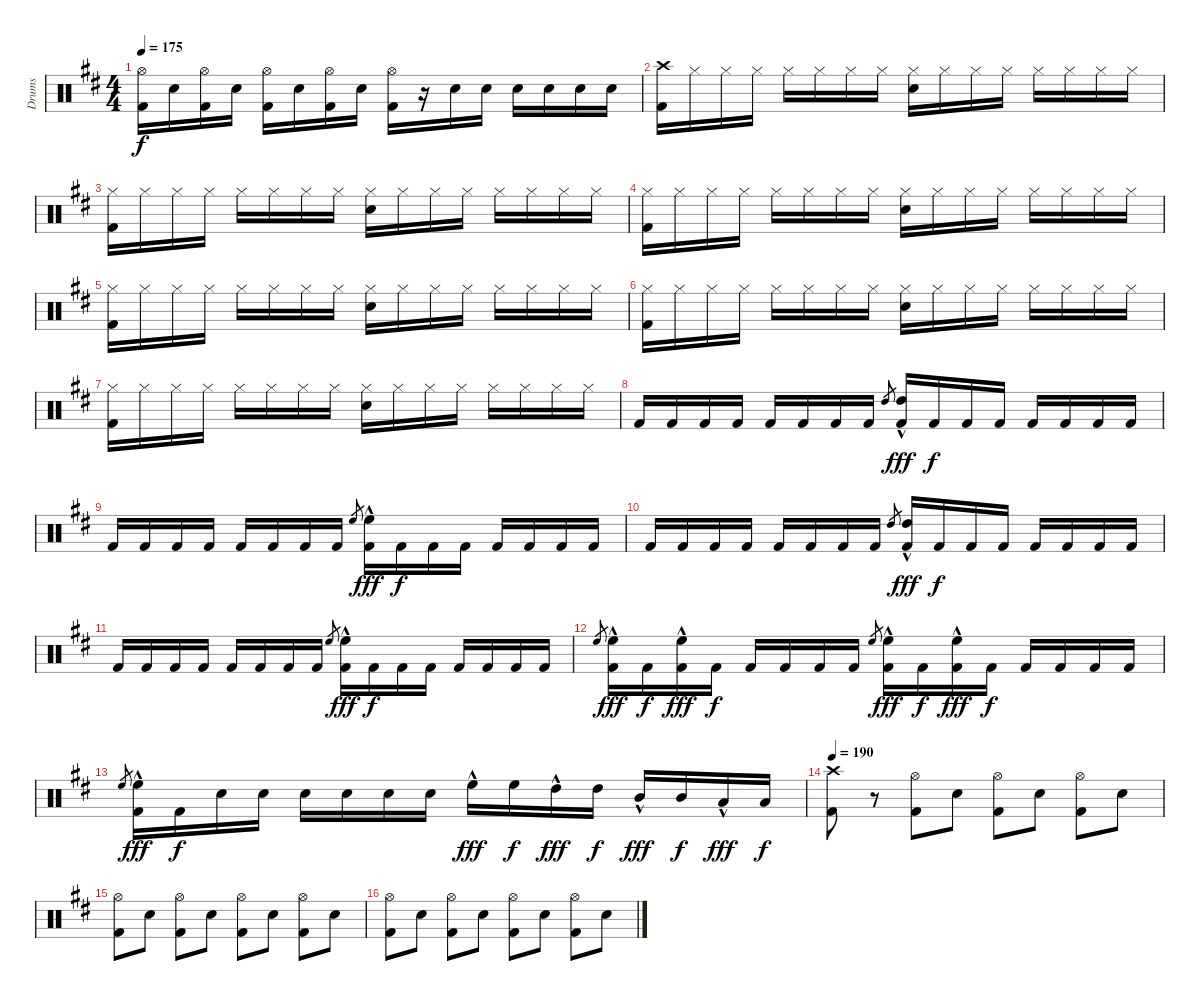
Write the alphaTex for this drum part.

\track ("Drums" "Drums") {instrument percussion}
\staff {score}
\articulation defaults
\ts (4 4)
\tempo 175
\clef neutral
\ks bminor
("Kick (hit) 2" "Hi-Hat (open)").16{dy f} "Electric Snare (hit)".16 ("Kick (hit) 2" "Hi-Hat (open)").16 "Electric Snare (hit)".16 ("Kick (hit) 2" "Hi-Hat (open)").16 "Electric Snare (hit)".16 ("Kick (hit) 2" "Hi-Hat (open)").16 "Electric Snare (hit)".16 ("Kick (hit) 2" "Hi-Hat (open)").16 r.16 "Electric Snare (hit)".16 "Electric Snare (hit)".16 "Electric Snare (hit)".16 "Electric Snare (hit)".16 "Electric Snare (hit)".16 "Electric Snare (hit)".16 |
("Kick (hit) 2" "Crash high (hit)").16 "Hi-Hat (closed)".16 "Hi-Hat (closed)".16 "Hi-Hat (closed)".16 "Hi-Hat (closed)".16 "Hi-Hat (closed)".16 "Hi-Hat (closed)".16 "Hi-Hat (closed)".16 ("Electric Snare (hit)" "Hi-Hat (closed)").16 "Hi-Hat (closed)".16 "Hi-Hat (closed)".16 "Hi-Hat (closed)".16 "Hi-Hat (closed)".16 "Hi-Hat (closed)".16 "Hi-Hat (closed)".16 "Hi-Hat (closed)".16 |
("Kick (hit) 2" "Hi-Hat (closed)").16 "Hi-Hat (closed)".16 "Hi-Hat (closed)".16 "Hi-Hat (closed)".16 "Hi-Hat (closed)".16 "Hi-Hat (closed)".16 "Hi-Hat (closed)".16 "Hi-Hat (closed)".16 ("Electric Snare (hit)" "Hi-Hat (closed)").16 "Hi-Hat (closed)".16 "Hi-Hat (closed)".16 "Hi-Hat (closed)".16 "Hi-Hat (closed)".16 "Hi-Hat (closed)".16 "Hi-Hat (closed)".16 "Hi-Hat (closed)".16 |
("Kick (hit) 2" "Hi-Hat (closed)").16 "Hi-Hat (closed)".16 "Hi-Hat (closed)".16 "Hi-Hat (closed)".16 "Hi-Hat (closed)".16 "Hi-Hat (closed)".16 "Hi-Hat (closed)".16 "Hi-Hat (closed)".16 ("Electric Snare (hit)" "Hi-Hat (closed)").16 "Hi-Hat (closed)".16 "Hi-Hat (closed)".16 "Hi-Hat (closed)".16 "Hi-Hat (closed)".16 "Hi-Hat (closed)".16 "Hi-Hat (closed)".16 "Hi-Hat (closed)".16 |
("Kick (hit) 2" "Hi-Hat (closed)").16 "Hi-Hat (closed)".16 "Hi-Hat (closed)".16 "Hi-Hat (closed)".16 "Hi-Hat (closed)".16 "Hi-Hat (closed)".16 "Hi-Hat (closed)".16 "Hi-Hat (closed)".16 ("Electric Snare (hit)" "Hi-Hat (closed)").16 "Hi-Hat (closed)".16 "Hi-Hat (closed)".16 "Hi-Hat (closed)".16 "Hi-Hat (closed)".16 "Hi-Hat (closed)".16 "Hi-Hat (closed)".16 "Hi-Hat (closed)".16 |
("Kick (hit) 2" "Hi-Hat (closed)").16 "Hi-Hat (closed)".16 "Hi-Hat (closed)".16 "Hi-Hat (closed)".16 "Hi-Hat (closed)".16 "Hi-Hat (closed)".16 "Hi-Hat (closed)".16 "Hi-Hat (closed)".16 ("Electric Snare (hit)" "Hi-Hat (closed)").16 "Hi-Hat (closed)".16 "Hi-Hat (closed)".16 "Hi-Hat (closed)".16 "Hi-Hat (closed)".16 "Hi-Hat (closed)".16 "Hi-Hat (closed)".16 "Hi-Hat (closed)".16 |
("Kick (hit) 2" "Hi-Hat (closed)").16 "Hi-Hat (closed)".16 "Hi-Hat (closed)".16 "Hi-Hat (closed)".16 "Hi-Hat (closed)".16 "Hi-Hat (closed)".16 "Hi-Hat (closed)".16 "Hi-Hat (closed)".16 ("Electric Snare (hit)" "Hi-Hat (closed)").16 "Hi-Hat (closed)".16 "Hi-Hat (closed)".16 "Hi-Hat (closed)".16 "Hi-Hat (closed)".16 "Hi-Hat (closed)".16 "Hi-Hat (closed)".16 "Hi-Hat (closed)".16 |
"Kick (hit) 2".16 "Kick (hit) 2".16 "Kick (hit) 2".16 "Kick (hit) 2".16 "Kick (hit) 2".16 "Kick (hit) 2".16 "Kick (hit) 2".16 "Kick (hit) 2".16 "High Tom (hit)".8{gr} ("Kick (hit) 2" "High Tom (hit)"{hac}).16{dy fff} "Kick (hit) 2".16{dy f} "Kick (hit) 2".16 "Kick (hit) 2".16 "Kick (hit) 2".16 "Kick (hit) 2".16 "Kick (hit) 2".16 "Kick (hit) 2".16 |
"Kick (hit) 2".16 "Kick (hit) 2".16 "Kick (hit) 2".16 "Kick (hit) 2".16 "Kick (hit) 2".16 "Kick (hit) 2".16 "Kick (hit) 2".16 "Kick (hit) 2".16 "High Floor Tom (hit)".8{gr} ("Kick (hit) 2" "High Floor Tom (hit)"{hac}).16{dy fff} "Kick (hit) 2".16{dy f} "Kick (hit) 2".16 "Kick (hit) 2".16 "Kick (hit) 2".16 "Kick (hit) 2".16 "Kick (hit) 2".16 "Kick (hit) 2".16 |
"Kick (hit) 2".16 "Kick (hit) 2".16 "Kick (hit) 2".16 "Kick (hit) 2".16 "Kick (hit) 2".16 "Kick (hit) 2".16 "Kick (hit) 2".16 "Kick (hit) 2".16 "High Tom (hit)".8{gr} ("Kick (hit) 2" "High Tom (hit)"{hac}).16{dy fff} "Kick (hit) 2".16{dy f} "Kick (hit) 2".16 "Kick (hit) 2".16 "Kick (hit) 2".16 "Kick (hit) 2".16 "Kick (hit) 2".16 "Kick (hit) 2".16 |
"Kick (hit) 2".16 "Kick (hit) 2".16 "Kick (hit) 2".16 "Kick (hit) 2".16 "Kick (hit) 2".16 "Kick (hit) 2".16 "Kick (hit) 2".16 "Kick (hit) 2".16 "High Floor Tom (hit)".8{gr} ("Kick (hit) 2" "High Floor Tom (hit)"{hac}).16{dy fff} "Kick (hit) 2".16{dy f} "Kick (hit) 2".16 "Kick (hit) 2".16 "Kick (hit) 2".16 "Kick (hit) 2".16 "Kick (hit) 2".16 "Kick (hit) 2".16 |
"High Floor Tom (hit)".8{gr} ("Kick (hit) 2" "High Floor Tom (hit)"{hac}).16{dy fff} "Kick (hit) 2".16{dy f} ("Kick (hit) 2" "High Floor Tom (hit)"{hac}).16{dy fff} "Kick (hit) 2".16{dy f} "Kick (hit) 2".16 "Kick (hit) 2".16 "Kick (hit) 2".16 "Kick (hit) 2".16 "High Floor Tom (hit)".8{gr} ("Kick (hit) 2" "High Floor Tom (hit)"{hac}).16{dy fff} "Kick (hit) 2".16{dy f} ("Kick (hit) 2" "High Floor Tom (hit)"{hac}).16{dy fff} "Kick (hit) 2".16{dy f} "Kick (hit) 2".16 "Kick (hit) 2".16 "Kick (hit) 2".16 "Kick (hit) 2".16 |
"High Floor Tom (hit)".8{gr} ("Kick (hit) 2" "High Floor Tom (hit)"{hac}).16{dy fff} "Kick (hit) 2".16{dy f} "Electric Snare (hit)".16 "Electric Snare (hit)".16 "Electric Snare (hit)".16 "Electric Snare (hit)".16 "Electric Snare (hit)".16 "Electric Snare (hit)".16 "High Floor Tom (hit)"{hac}.16{dy fff} "High Floor Tom (hit)".16{dy f} "High Tom (hit)"{hac}.16{dy fff} "High Tom (hit)".16{dy f} "Mid Tom (hit)"{hac}.16{dy fff} "Mid Tom (hit)".16{dy f} "Low Tom (hit)"{hac}.16{dy fff} "Low Tom (hit)".16{dy f} |
\tempo 190
("Kick (hit) 2" "Crash high (hit)").8 r.8 ("Kick (hit) 2" "Hi-Hat (open)").8 "Electric Snare (hit)".8 ("Kick (hit) 2" "Hi-Hat (open)").8 "Electric Snare (hit)".8 ("Kick (hit) 2" "Hi-Hat (open)").8 "Electric Snare (hit)".8 |
("Kick (hit) 2" "Hi-Hat (open)").8 "Electric Snare (hit)".8 ("Kick (hit) 2" "Hi-Hat (open)").8 "Electric Snare (hit)".8 ("Kick (hit) 2" "Hi-Hat (open)").8 "Electric Snare (hit)".8 ("Kick (hit) 2" "Hi-Hat (open)").8 "Electric Snare (hit)".8 |
("Kick (hit) 2" "Hi-Hat (open)").8 "Electric Snare (hit)".8 ("Kick (hit) 2" "Hi-Hat (open)").8 "Electric Snare (hit)".8 ("Kick (hit) 2" "Hi-Hat (open)").8 "Electric Snare (hit)".8 ("Kick (hit) 2" "Hi-Hat (open)").8 "Electric Snare (hit)".8
